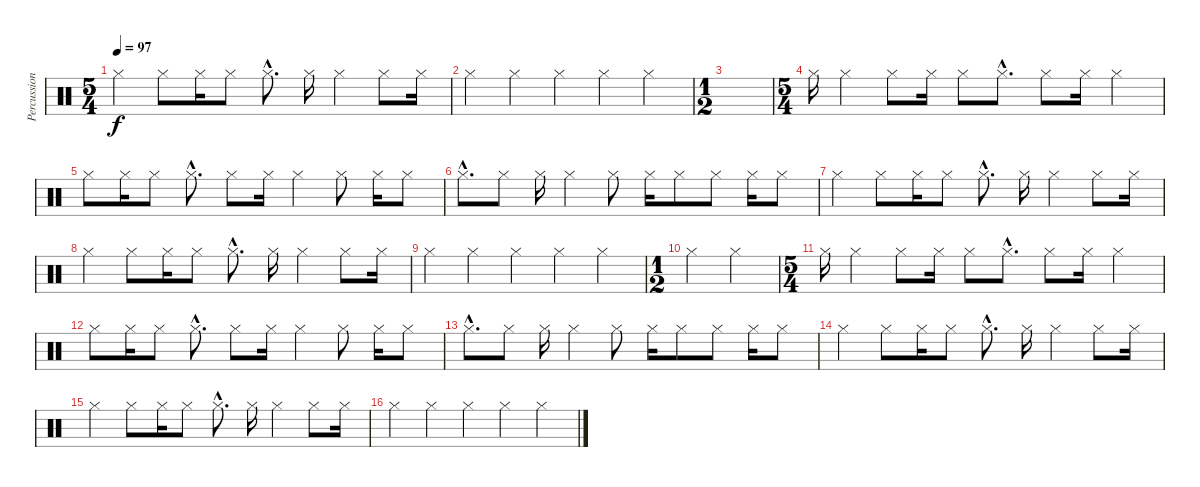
\track ("Percussions" "Percussion") {instrument percussion}
\staff {score}
\articulation defaults
\ts (5 4)
\tempo 97
\clef neutral
\ks c "Hi-Hat (closed)".4{dy f} "Hi-Hat (closed)".8 "Hi-Hat (closed)".16 "Hi-Hat (closed)".8 "Hi-Hat (closed)"{hac}.8{d} "Hi-Hat (closed)".16 "Hi-Hat (closed)".4 "Hi-Hat (closed)".8 "Hi-Hat (closed)".16
|
"Hi-Hat (closed)".4 "Hi-Hat (closed)".4 "Hi-Hat (closed)".4 "Hi-Hat (closed)".4 "Hi-Hat (closed)".4 |
\ts (1 2)
|
\ts (5 4)
"Hi-Hat (closed)".16{volume 13} "Hi-Hat (closed)".4 "Hi-Hat (closed)".8 "Hi-Hat (closed)".16 "Hi-Hat (closed)".8 "Hi-Hat (closed)"{hac}.8{d} "Hi-Hat (closed)".8 "Hi-Hat (closed)".16 "Hi-Hat (closed)".4 |
"Hi-Hat (closed)".8 "Hi-Hat (closed)".16 "Hi-Hat (closed)".8 "Hi-Hat (closed)"{hac}.8{d} "Hi-Hat (closed)".8 "Hi-Hat (closed)".16 "Hi-Hat (closed)".4 "Hi-Hat (closed)".8 "Hi-Hat (closed)".16 "Hi-Hat (closed)".8 |
"Hi-Hat (closed)"{hac}.8{d} "Hi-Hat (closed)".8 "Hi-Hat (closed)".16 "Hi-Hat (closed)".4 "Hi-Hat (closed)".8 "Hi-Hat (closed)".16 "Hi-Hat (closed)".8 "Hi-Hat (closed)".8 "Hi-Hat (closed)".16 "Hi-Hat (closed)".8 |
"Hi-Hat (closed)".4 "Hi-Hat (closed)".8 "Hi-Hat (closed)".16 "Hi-Hat (closed)".8 "Hi-Hat (closed)"{hac}.8{d} "Hi-Hat (closed)".16 "Hi-Hat (closed)".4 "Hi-Hat (closed)".8 "Hi-Hat (closed)".16 |
"Hi-Hat (closed)".4 "Hi-Hat (closed)".8 "Hi-Hat (closed)".16 "Hi-Hat (closed)".8 "Hi-Hat (closed)"{hac}.8{d} "Hi-Hat (closed)".16 "Hi-Hat (closed)".4 "Hi-Hat (closed)".8 "Hi-Hat (closed)".16 |
"Hi-Hat (closed)".4 "Hi-Hat (closed)".4 "Hi-Hat (closed)".4 "Hi-Hat (closed)".4 "Hi-Hat (closed)".4 |
\ts (1 2)
"Hi-Hat (closed)".4 "Hi-Hat (closed)".4 |
\ts (5 4)
"Hi-Hat (closed)".16{volume 13} "Hi-Hat (closed)".4 "Hi-Hat (closed)".8 "Hi-Hat (closed)".16 "Hi-Hat (closed)".8 "Hi-Hat (closed)"{hac}.8{d} "Hi-Hat (closed)".8 "Hi-Hat (closed)".16 "Hi-Hat (closed)".4 |
"Hi-Hat (closed)".8 "Hi-Hat (closed)".16 "Hi-Hat (closed)".8 "Hi-Hat (closed)"{hac}.8{d} "Hi-Hat (closed)".8 "Hi-Hat (closed)".16 "Hi-Hat (closed)".4 "Hi-Hat (closed)".8 "Hi-Hat (closed)".16 "Hi-Hat (closed)".8 |
"Hi-Hat (closed)"{hac}.8{d} "Hi-Hat (closed)".8 "Hi-Hat (closed)".16 "Hi-Hat (closed)".4 "Hi-Hat (closed)".8 "Hi-Hat (closed)".16 "Hi-Hat (closed)".8 "Hi-Hat (closed)".8 "Hi-Hat (closed)".16 "Hi-Hat (closed)".8 |
"Hi-Hat (closed)".4 "Hi-Hat (closed)".8 "Hi-Hat (closed)".16 "Hi-Hat (closed)".8 "Hi-Hat (closed)"{hac}.8{d} "Hi-Hat (closed)".16 "Hi-Hat (closed)".4 "Hi-Hat (closed)".8 "Hi-Hat (closed)".16 |
"Hi-Hat (closed)".4 "Hi-Hat (closed)".8 "Hi-Hat (closed)".16 "Hi-Hat (closed)".8 "Hi-Hat (closed)"{hac}.8{d} "Hi-Hat (closed)".16 "Hi-Hat (closed)".4 "Hi-Hat (closed)".8 "Hi-Hat (closed)".16 |
"Hi-Hat (closed)".4 "Hi-Hat (closed)".4 "Hi-Hat (closed)".4 "Hi-Hat (closed)".4 "Hi-Hat (closed)".4
